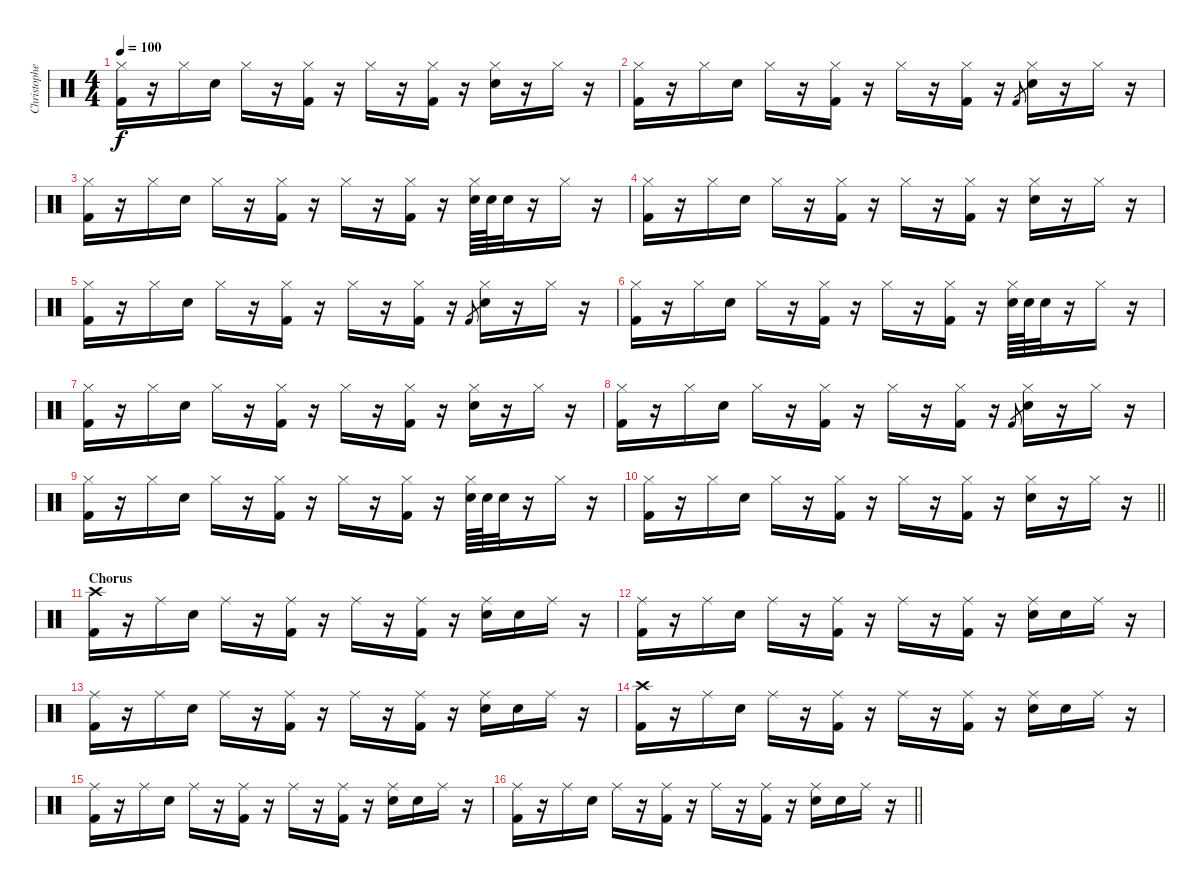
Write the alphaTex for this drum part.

\track ("Christopher - Drums" "Christophe") {instrument percussion}
\staff {score}
\articulation defaults
\ts (4 4)
\tempo 100
\clef neutral
\ks c
("Hi-Hat (closed)" "Kick (hit) 2").16{dy f} r.16 "Hi-Hat (closed)".16 "Electric Snare (hit)".16 "Hi-Hat (closed)".16 r.16 ("Hi-Hat (closed)" "Kick (hit) 2").16 r.16 "Hi-Hat (closed)".16 r.16 ("Hi-Hat (closed)" "Kick (hit) 2").16 r.16 ("Hi-Hat (closed)" "Electric Snare (hit)").16 r.16 "Hi-Hat (closed)".16 r.16 |
("Hi-Hat (closed)" "Kick (hit) 2").16 r.16 "Hi-Hat (closed)".16 "Electric Snare (hit)".16 "Hi-Hat (closed)".16 r.16 ("Hi-Hat (closed)" "Kick (hit) 2").16 r.16 "Hi-Hat (closed)".16 r.16 ("Hi-Hat (closed)" "Kick (hit) 2").16 r.16 "Kick (hit) 2".8{gr} ("Hi-Hat (closed)" "Electric Snare (hit)").16 r.16 "Hi-Hat (closed)".16 r.16 |
("Hi-Hat (closed)" "Kick (hit) 2").16 r.16 "Hi-Hat (closed)".16 "Electric Snare (hit)".16 "Hi-Hat (closed)".16 r.16 ("Hi-Hat (closed)" "Kick (hit) 2").16 r.16 "Hi-Hat (closed)".16 r.16 ("Hi-Hat (closed)" "Kick (hit) 2").16 r.16 ("Hi-Hat (closed)" "Electric Snare (hit)").64 "Electric Snare (hit)".64 "Electric Snare (hit)".32 r.16 "Hi-Hat (closed)".16 r.16 |
("Hi-Hat (closed)" "Kick (hit) 2").16 r.16 "Hi-Hat (closed)".16 "Electric Snare (hit)".16 "Hi-Hat (closed)".16 r.16 ("Hi-Hat (closed)" "Kick (hit) 2").16 r.16 "Hi-Hat (closed)".16 r.16 ("Hi-Hat (closed)" "Kick (hit) 2").16 r.16 ("Hi-Hat (closed)" "Electric Snare (hit)").16 r.16 "Hi-Hat (closed)".16 r.16 |
("Hi-Hat (closed)" "Kick (hit) 2").16 r.16 "Hi-Hat (closed)".16 "Electric Snare (hit)".16 "Hi-Hat (closed)".16 r.16 ("Hi-Hat (closed)" "Kick (hit) 2").16 r.16 "Hi-Hat (closed)".16 r.16 ("Hi-Hat (closed)" "Kick (hit) 2").16 r.16 "Kick (hit) 2".8{gr} ("Hi-Hat (closed)" "Electric Snare (hit)").16 r.16 "Hi-Hat (closed)".16 r.16 |
("Hi-Hat (closed)" "Kick (hit) 2").16 r.16 "Hi-Hat (closed)".16 "Electric Snare (hit)".16 "Hi-Hat (closed)".16 r.16 ("Hi-Hat (closed)" "Kick (hit) 2").16 r.16 "Hi-Hat (closed)".16 r.16 ("Hi-Hat (closed)" "Kick (hit) 2").16 r.16 ("Hi-Hat (closed)" "Electric Snare (hit)").64 "Electric Snare (hit)".64 "Electric Snare (hit)".32 r.16 "Hi-Hat (closed)".16 r.16 |
("Hi-Hat (closed)" "Kick (hit) 2").16 r.16 "Hi-Hat (closed)".16 "Electric Snare (hit)".16 "Hi-Hat (closed)".16 r.16 ("Hi-Hat (closed)" "Kick (hit) 2").16 r.16 "Hi-Hat (closed)".16 r.16 ("Hi-Hat (closed)" "Kick (hit) 2").16 r.16 ("Hi-Hat (closed)" "Electric Snare (hit)").16 r.16 "Hi-Hat (closed)".16 r.16 |
("Hi-Hat (closed)" "Kick (hit) 2").16 r.16 "Hi-Hat (closed)".16 "Electric Snare (hit)".16 "Hi-Hat (closed)".16 r.16 ("Hi-Hat (closed)" "Kick (hit) 2").16 r.16 "Hi-Hat (closed)".16 r.16 ("Hi-Hat (closed)" "Kick (hit) 2").16 r.16 "Kick (hit) 2".8{gr} ("Hi-Hat (closed)" "Electric Snare (hit)").16 r.16 "Hi-Hat (closed)".16 r.16 |
("Hi-Hat (closed)" "Kick (hit) 2").16 r.16 "Hi-Hat (closed)".16 "Electric Snare (hit)".16 "Hi-Hat (closed)".16 r.16 ("Hi-Hat (closed)" "Kick (hit) 2").16 r.16 "Hi-Hat (closed)".16 r.16 ("Hi-Hat (closed)" "Kick (hit) 2").16 r.16 ("Hi-Hat (closed)" "Electric Snare (hit)").64 "Electric Snare (hit)".64 "Electric Snare (hit)".32 r.16 "Hi-Hat (closed)".16 r.16 |
\barLineRight lightlight
("Hi-Hat (closed)" "Kick (hit) 2").16 r.16 "Hi-Hat (closed)".16 "Electric Snare (hit)".16 "Hi-Hat (closed)".16 r.16 ("Hi-Hat (closed)" "Kick (hit) 2").16 r.16 "Hi-Hat (closed)".16 r.16 ("Hi-Hat (closed)" "Kick (hit) 2").16 r.16 ("Hi-Hat (closed)" "Electric Snare (hit)").16 r.16 "Hi-Hat (closed)".16 r.16 |
\section ("" "Chorus")
("Crash high (hit)" "Kick (hit) 2").16 r.16 "Ride (middle)".16 "Electric Snare (hit)".16 "Ride (middle)".16 r.16 ("Ride (middle)" "Kick (hit) 2").16 r.16 "Ride (middle)".16 r.16 ("Ride (middle)" "Kick (hit) 2").16 r.16 ("Ride (middle)" "Electric Snare (hit)").16 "Electric Snare (hit)".16 "Ride (middle)".16 r.16 |
("Ride (middle)" "Kick (hit) 2").16 r.16 "Ride (middle)".16 "Electric Snare (hit)".16 "Ride (middle)".16 r.16 ("Ride (middle)" "Kick (hit) 2").16 r.16 "Ride (middle)".16 r.16 ("Ride (middle)" "Kick (hit) 2").16 r.16 ("Ride (middle)" "Electric Snare (hit)").16 "Electric Snare (hit)".16 "Ride (middle)".16 r.16 |
("Ride (middle)" "Kick (hit) 2").16 r.16 "Ride (middle)".16 "Electric Snare (hit)".16 "Ride (middle)".16 r.16 ("Ride (middle)" "Kick (hit) 2").16 r.16 "Ride (middle)".16 r.16 ("Ride (middle)" "Kick (hit) 2").16 r.16 ("Ride (middle)" "Electric Snare (hit)").16 "Electric Snare (hit)".16 "Ride (middle)".16 r.16 |
("Crash high (hit)" "Kick (hit) 2").16 r.16 "Ride (middle)".16 "Electric Snare (hit)".16 "Ride (middle)".16 r.16 ("Ride (middle)" "Kick (hit) 2").16 r.16 "Ride (middle)".16 r.16 ("Ride (middle)" "Kick (hit) 2").16 r.16 ("Ride (middle)" "Electric Snare (hit)").16 "Electric Snare (hit)".16 "Ride (middle)".16 r.16 |
("Ride (middle)" "Kick (hit) 2").16 r.16 "Ride (middle)".16 "Electric Snare (hit)".16 "Ride (middle)".16 r.16 ("Ride (middle)" "Kick (hit) 2").16 r.16 "Ride (middle)".16 r.16 ("Ride (middle)" "Kick (hit) 2").16 r.16 ("Ride (middle)" "Electric Snare (hit)").16 "Electric Snare (hit)".16 "Ride (middle)".16 r.16 |
\barLineRight lightlight
("Ride (middle)" "Kick (hit) 2").16 r.16 "Ride (middle)".16 "Electric Snare (hit)".16 "Ride (middle)".16 r.16 ("Ride (middle)" "Kick (hit) 2").16 r.16 "Ride (middle)".16 r.16 ("Ride (middle)" "Kick (hit) 2").16 r.16 ("Ride (middle)" "Electric Snare (hit)").16 "Electric Snare (hit)".16 "Ride (middle)".16 r.16
